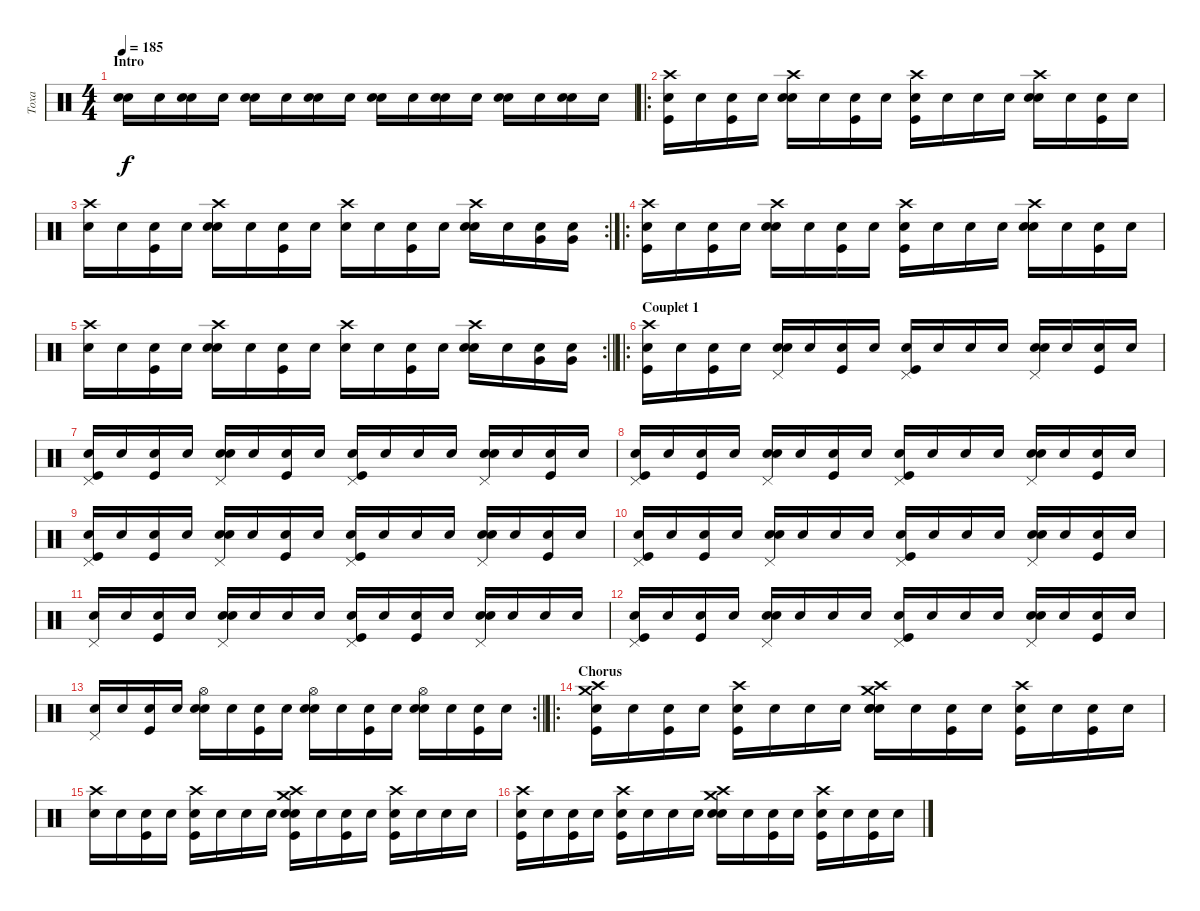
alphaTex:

\track ("Toxa" "Toxa") {instrument percussion}
\staff {score}
\articulation defaults
\ts (4 4)
\section ("" "Intro")
\tempo 185
\clef neutral
\ks c
("Snare (hit)"{x} "Electric Snare (hit)").16{dy f} "Snare (hit)"{x}.16 ("Snare (hit)"{x} "Electric Snare (hit)").16 "Snare (hit)"{x}.16 ("Snare (hit)"{x} "Electric Snare (hit)").16 "Snare (hit)"{x}.16 ("Snare (hit)"{x} "Electric Snare (hit)").16 "Snare (hit)"{x}.16 ("Snare (hit)"{x} "Electric Snare (hit)").16 "Snare (hit)"{x}.16 ("Snare (hit)"{x} "Electric Snare (hit)").16 "Snare (hit)"{x}.16 ("Snare (hit)"{x} "Electric Snare (hit)").16 "Snare (hit)"{x}.16 ("Snare (hit)"{x} "Electric Snare (hit)").16 "Snare (hit)"{x}.16 |
\ro
("Snare (hit)"{x} "Kick (hit)" "Crash high (hit)").16 "Snare (hit)"{x}.16 ("Snare (hit)"{x} "Kick (hit)").16 "Snare (hit)"{x}.16 ("Snare (hit)"{x} "Electric Snare (hit)" "Crash high (hit)").16 "Snare (hit)"{x}.16 ("Snare (hit)"{x} "Kick (hit)").16 "Snare (hit)"{x}.16 ("Snare (hit)"{x} "Kick (hit)" "Crash high (hit)").16 "Snare (hit)"{x}.16 "Snare (hit)"{x}.16 "Snare (hit)"{x}.16 ("Snare (hit)"{x} "Electric Snare (hit)" "Crash high (hit)").16 "Snare (hit)"{x}.16 ("Snare (hit)"{x} "Kick (hit)").16 "Snare (hit)"{x}.16 |
\rc 2
("Snare (hit)"{x} "Crash high (hit)").16 "Snare (hit)"{x}.16 ("Snare (hit)"{x} "Kick (hit)").16 "Snare (hit)"{x}.16 ("Snare (hit)"{x} "Electric Snare (hit)" "Crash high (hit)").16 "Snare (hit)"{x}.16 ("Snare (hit)"{x} "Kick (hit)").16 "Snare (hit)"{x}.16 ("Snare (hit)"{x} "Crash high (hit)").16 "Snare (hit)"{x}.16 ("Snare (hit)"{x} "Kick (hit)").16 "Snare (hit)"{x}.16 ("Snare (hit)"{x} "Electric Snare (hit)" "Crash high (hit)").16 "Snare (hit)"{x}.16 ("Snare (hit)"{x} "Very Low Tom (hit)").16 ("Snare (hit)"{x} "Very Low Tom (hit)").16 |
\ro
("Snare (hit)"{x} "Kick (hit)" "Crash high (hit)").16 "Snare (hit)"{x}.16 ("Snare (hit)"{x} "Kick (hit)").16 "Snare (hit)"{x}.16 ("Snare (hit)"{x} "Electric Snare (hit)" "Crash high (hit)").16 "Snare (hit)"{x}.16 ("Snare (hit)"{x} "Kick (hit)").16 "Snare (hit)"{x}.16 ("Snare (hit)"{x} "Kick (hit)" "Crash high (hit)").16 "Snare (hit)"{x}.16 "Snare (hit)"{x}.16 "Snare (hit)"{x}.16 ("Snare (hit)"{x} "Electric Snare (hit)" "Crash high (hit)").16 "Snare (hit)"{x}.16 ("Snare (hit)"{x} "Kick (hit)").16 "Snare (hit)"{x}.16 |
\rc 2
\barLineRight lightlight
("Snare (hit)"{x} "Crash high (hit)").16 "Snare (hit)"{x}.16 ("Snare (hit)"{x} "Kick (hit)").16 "Snare (hit)"{x}.16 ("Snare (hit)"{x} "Electric Snare (hit)" "Crash high (hit)").16 "Snare (hit)"{x}.16 ("Snare (hit)"{x} "Kick (hit)").16 "Snare (hit)"{x}.16 ("Snare (hit)"{x} "Crash high (hit)").16 "Snare (hit)"{x}.16 ("Snare (hit)"{x} "Kick (hit)").16 "Snare (hit)"{x}.16 ("Snare (hit)"{x} "Electric Snare (hit)" "Crash high (hit)").16 "Snare (hit)"{x}.16 ("Snare (hit)"{x} "Very Low Tom (hit)").16 ("Snare (hit)"{x} "Very Low Tom (hit)").16 |
\ro
\section ("" "Couplet 1")
("Snare (hit)"{x} "Kick (hit)" "Crash high (hit)").16 "Snare (hit)"{x}.16 ("Snare (hit)"{x} "Kick (hit)").16 "Snare (hit)"{x}.16 ("Snare (hit)"{x} "Electric Snare (hit)" "Pedal Hi-Hat (hit)").16 "Snare (hit)"{x}.16 ("Snare (hit)"{x} "Kick (hit)").16 "Snare (hit)"{x}.16 ("Snare (hit)"{x} "Kick (hit)" "Pedal Hi-Hat (hit)").16 "Snare (hit)"{x}.16 "Snare (hit)"{x}.16 "Snare (hit)"{x}.16 ("Snare (hit)"{x} "Electric Snare (hit)" "Pedal Hi-Hat (hit)").16 "Snare (hit)"{x}.16 ("Snare (hit)"{x} "Kick (hit)").16 "Snare (hit)"{x}.16 |
("Snare (hit)"{x} "Kick (hit)" "Pedal Hi-Hat (hit)").16 "Snare (hit)"{x}.16 ("Snare (hit)"{x} "Kick (hit)").16 "Snare (hit)"{x}.16 ("Snare (hit)"{x} "Electric Snare (hit)" "Pedal Hi-Hat (hit)").16 "Snare (hit)"{x}.16 ("Snare (hit)"{x} "Kick (hit)").16 "Snare (hit)"{x}.16 ("Snare (hit)"{x} "Kick (hit)" "Pedal Hi-Hat (hit)").16 "Snare (hit)"{x}.16 "Snare (hit)"{x}.16 "Snare (hit)"{x}.16 ("Snare (hit)"{x} "Electric Snare (hit)" "Pedal Hi-Hat (hit)").16 "Snare (hit)"{x}.16 ("Snare (hit)"{x} "Kick (hit)").16 "Snare (hit)"{x}.16 |
("Snare (hit)"{x} "Kick (hit)" "Pedal Hi-Hat (hit)").16 "Snare (hit)"{x}.16 ("Snare (hit)"{x} "Kick (hit)").16 "Snare (hit)"{x}.16 ("Snare (hit)"{x} "Electric Snare (hit)" "Pedal Hi-Hat (hit)").16 "Snare (hit)"{x}.16 ("Snare (hit)"{x} "Kick (hit)").16 "Snare (hit)"{x}.16 ("Snare (hit)"{x} "Kick (hit)" "Pedal Hi-Hat (hit)").16 "Snare (hit)"{x}.16 "Snare (hit)"{x}.16 "Snare (hit)"{x}.16 ("Snare (hit)"{x} "Electric Snare (hit)" "Pedal Hi-Hat (hit)").16 "Snare (hit)"{x}.16 ("Snare (hit)"{x} "Kick (hit)").16 "Snare (hit)"{x}.16 |
("Snare (hit)"{x} "Kick (hit)" "Pedal Hi-Hat (hit)").16 "Snare (hit)"{x}.16 ("Snare (hit)"{x} "Kick (hit)").16 "Snare (hit)"{x}.16 ("Snare (hit)"{x} "Electric Snare (hit)" "Pedal Hi-Hat (hit)").16 "Snare (hit)"{x}.16 ("Snare (hit)"{x} "Kick (hit)").16 "Snare (hit)"{x}.16 ("Snare (hit)"{x} "Kick (hit)" "Pedal Hi-Hat (hit)").16 "Snare (hit)"{x}.16 "Snare (hit)"{x}.16 "Snare (hit)"{x}.16 ("Snare (hit)"{x} "Electric Snare (hit)" "Pedal Hi-Hat (hit)").16 "Snare (hit)"{x}.16 ("Snare (hit)"{x} "Kick (hit)").16 "Snare (hit)"{x}.16 |
("Snare (hit)"{x} "Kick (hit)" "Pedal Hi-Hat (hit)").16 "Snare (hit)"{x}.16 ("Snare (hit)"{x} "Kick (hit)").16 "Snare (hit)"{x}.16 ("Snare (hit)"{x} "Electric Snare (hit)" "Pedal Hi-Hat (hit)").16 "Snare (hit)"{x}.16 "Snare (hit)"{x}.16 "Snare (hit)"{x}.16 ("Snare (hit)"{x} "Kick (hit)" "Pedal Hi-Hat (hit)").16 "Snare (hit)"{x}.16 "Snare (hit)"{x}.16 "Snare (hit)"{x}.16 ("Snare (hit)"{x} "Electric Snare (hit)" "Pedal Hi-Hat (hit)").16 "Snare (hit)"{x}.16 ("Snare (hit)"{x} "Kick (hit)").16 "Snare (hit)"{x}.16 |
("Snare (hit)"{x} "Pedal Hi-Hat (hit)").16 "Snare (hit)"{x}.16 ("Snare (hit)"{x} "Kick (hit)").16 "Snare (hit)"{x}.16 ("Snare (hit)"{x} "Electric Snare (hit)" "Pedal Hi-Hat (hit)").16 "Snare (hit)"{x}.16 "Snare (hit)"{x}.16 "Snare (hit)"{x}.16 ("Snare (hit)"{x} "Kick (hit)" "Pedal Hi-Hat (hit)").16 "Snare (hit)"{x}.16 ("Snare (hit)"{x} "Kick (hit)").16 "Snare (hit)"{x}.16 ("Snare (hit)"{x} "Electric Snare (hit)" "Pedal Hi-Hat (hit)").16 "Snare (hit)"{x}.16 "Snare (hit)"{x}.16 "Snare (hit)"{x}.16 |
("Snare (hit)"{x} "Kick (hit)" "Pedal Hi-Hat (hit)").16 "Snare (hit)"{x}.16 ("Snare (hit)"{x} "Kick (hit)").16 "Snare (hit)"{x}.16 ("Snare (hit)"{x} "Electric Snare (hit)" "Pedal Hi-Hat (hit)").16 "Snare (hit)"{x}.16 "Snare (hit)"{x}.16 "Snare (hit)"{x}.16 ("Snare (hit)"{x} "Kick (hit)" "Pedal Hi-Hat (hit)").16 "Snare (hit)"{x}.16 "Snare (hit)"{x}.16 "Snare (hit)"{x}.16 ("Snare (hit)"{x} "Electric Snare (hit)" "Pedal Hi-Hat (hit)").16 "Snare (hit)"{x}.16 ("Snare (hit)"{x} "Kick (hit)").16 "Snare (hit)"{x}.16 |
\rc 2
\barLineRight lightlight
("Snare (hit)"{x} "Pedal Hi-Hat (hit)").16 "Snare (hit)"{x}.16 ("Snare (hit)"{x} "Kick (hit)").16 "Snare (hit)"{x}.16 ("Snare (hit)"{x} "Electric Snare (hit)" "Hi-Hat (open)").16 "Snare (hit)"{x}.16 ("Snare (hit)"{x} "Kick (hit)").16 "Snare (hit)"{x}.16 ("Snare (hit)"{x} "Electric Snare (hit)" "Hi-Hat (open)").16 "Snare (hit)"{x}.16 ("Snare (hit)"{x} "Kick (hit)").16 "Snare (hit)"{x}.16 ("Snare (hit)"{x} "Electric Snare (hit)" "Hi-Hat (open)").16 "Snare (hit)"{x}.16 ("Snare (hit)"{x} "Kick (hit)").16 "Snare (hit)"{x}.16 |
\ro
\section ("" "Chorus")
("Snare (hit)"{x} "Kick (hit)" "Crash medium (hit)" "Crash high (hit)").16 "Snare (hit)"{x}.16 ("Snare (hit)"{x} "Kick (hit)").16 "Snare (hit)"{x}.16 ("Snare (hit)"{x} "Kick (hit)" "Crash high (hit)").16 "Snare (hit)"{x}.16 "Snare (hit)"{x}.16 "Snare (hit)"{x}.16 ("Snare (hit)"{x} "Crash medium (hit)" "Electric Snare (hit)" "Snare (hit) 2" "Crash high (hit)").16 "Snare (hit)"{x}.16 ("Snare (hit)"{x} "Kick (hit)").16 "Snare (hit)"{x}.16 ("Snare (hit)"{x} "Kick (hit)" "Crash high (hit)").16 "Snare (hit)"{x}.16 ("Snare (hit)"{x} "Kick (hit)").16 "Snare (hit)"{x}.16 |
("Snare (hit)"{x} "Crash high (hit)").16 "Snare (hit)"{x}.16 ("Snare (hit)"{x} "Kick (hit)").16 "Snare (hit)"{x}.16 ("Snare (hit)"{x} "Kick (hit)" "Crash high (hit)").16 "Snare (hit)"{x}.16 "Snare (hit)"{x}.16 "Snare (hit)"{x}.16 ("Snare (hit)"{x} "Electric Snare (hit)" "Crash medium (hit)" "Kick (hit)" "Crash high (hit)").16 "Snare (hit)"{x}.16 ("Snare (hit)"{x} "Kick (hit)").16 "Snare (hit)"{x}.16 ("Snare (hit)"{x} "Kick (hit)" "Crash high (hit)").16 "Snare (hit)"{x}.16 "Snare (hit)"{x}.16 "Snare (hit)"{x}.16 |
("Snare (hit)"{x} "Kick (hit)" "Crash high (hit)").16 "Snare (hit)"{x}.16 ("Snare (hit)"{x} "Kick (hit)").16 "Snare (hit)"{x}.16 ("Snare (hit)"{x} "Kick (hit)" "Crash high (hit)").16 "Snare (hit)"{x}.16 "Snare (hit)"{x}.16 "Snare (hit)"{x}.16 ("Crash medium (hit)" "Electric Snare (hit)" "Snare (hit) 2" "Crash high (hit)").16 "Snare (hit)"{x}.16 ("Snare (hit)"{x} "Kick (hit)").16 "Snare (hit)"{x}.16 ("Snare (hit)"{x} "Kick (hit)" "Crash high (hit)").16 "Snare (hit)"{x}.16 ("Snare (hit)"{x} "Kick (hit)").16 "Snare (hit)"{x}.16
